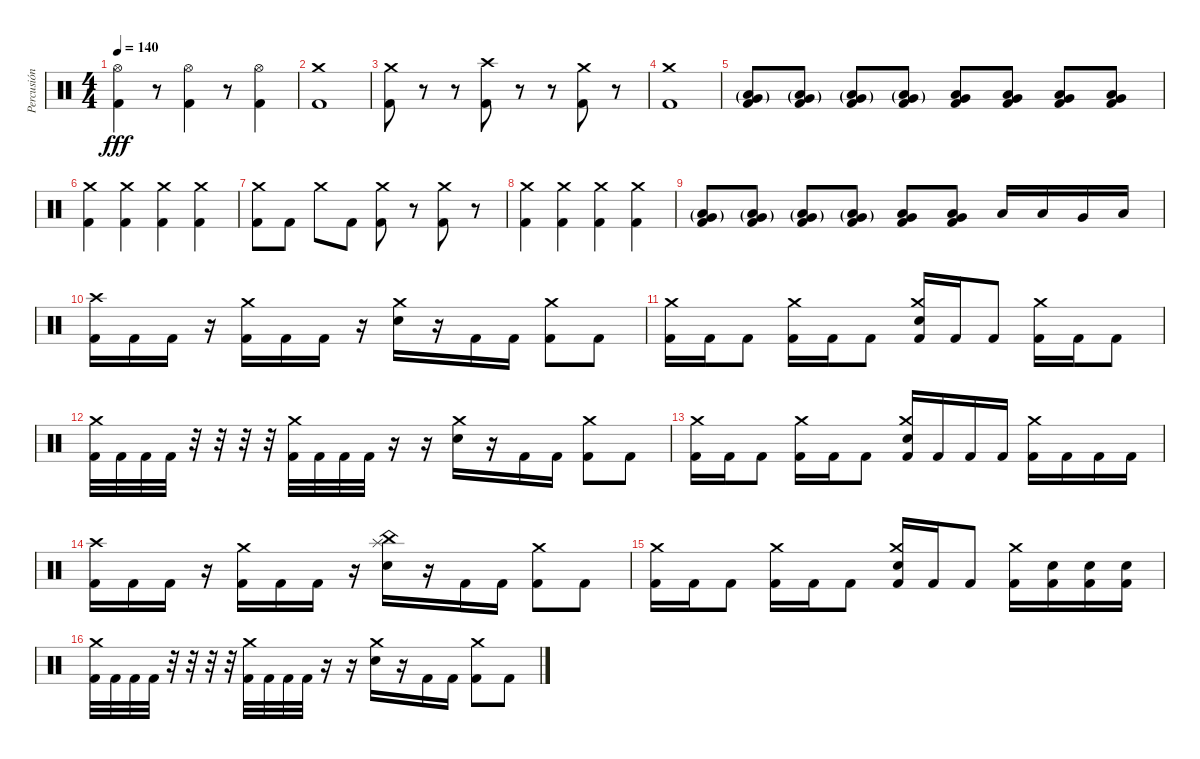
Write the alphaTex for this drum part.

\track ("Percusión" "Percusión") {instrument percussion}
\staff {score}
\articulation defaults
\ts (4 4)
\tempo 140
\clef neutral
\ks c
("Hi-Hat (open)" "Kick (hit) 2").4{dy fff} r.8 ("Hi-Hat (open)" "Kick (hit) 2").4 r.8 ("Hi-Hat (open)" "Kick (hit) 2").4 |
("Crash medium (hit)" "Kick (hit) 2").1 |
("Crash medium (hit)" "Kick (hit) 2").8 r.8 r.8 ("Crash high (hit)" "Kick (hit) 2").8 r.8 r.8 ("Crash medium (hit)" "Kick (hit) 2").8 r.8 |
("Crash medium (hit)" "Kick (hit) 2").1 |
("Low Tom (hit)"{g} "Very Low Tom (hit)"{g} "Kick (hit) 2").8 ("Low Tom (hit)"{g} "Very Low Tom (hit)"{g} "Kick (hit) 2").8 ("Low Tom (hit)"{g} "Very Low Tom (hit)"{g} "Kick (hit) 2").8 ("Low Tom (hit)"{g} "Very Low Tom (hit)"{g} "Kick (hit) 2").8 ("Low Tom (hit)" "Very Low Tom (hit)" "Kick (hit) 2").8 ("Low Tom (hit)" "Very Low Tom (hit)" "Kick (hit) 2").8 ("Low Tom (hit)" "Very Low Tom (hit)" "Kick (hit) 2").8 ("Low Tom (hit)" "Very Low Tom (hit)" "Kick (hit) 2").8 |
("Crash medium (hit)" "Kick (hit) 2").4 ("Crash medium (hit)" "Kick (hit) 2").4 ("Crash medium (hit)" "Kick (hit) 2").4 ("Crash medium (hit)" "Kick (hit) 2").4 |
("Crash medium (hit)" "Kick (hit) 2").8 "Kick (hit) 2".8 "Crash medium (hit)".8 "Kick (hit) 2".8 ("Crash medium (hit)" "Kick (hit) 2").8 r.8 ("Crash medium (hit)" "Kick (hit) 2").8 r.8 |
("Crash medium (hit)" "Kick (hit) 2").4 ("Crash medium (hit)" "Kick (hit) 2").4 ("Crash medium (hit)" "Kick (hit) 2").4 ("Crash medium (hit)" "Kick (hit) 2").4 |
("Low Tom (hit)"{g} "Very Low Tom (hit)"{g} "Kick (hit) 2").8 ("Low Tom (hit)"{g} "Very Low Tom (hit)"{g} "Kick (hit) 2").8 ("Low Tom (hit)"{g} "Very Low Tom (hit)"{g} "Kick (hit) 2").8 ("Low Tom (hit)"{g} "Very Low Tom (hit)"{g} "Kick (hit) 2").8 ("Low Tom (hit)" "Very Low Tom (hit)" "Kick (hit) 2").8 ("Low Tom (hit)" "Very Low Tom (hit)" "Kick (hit) 2").8 "Low Tom (hit)".16 "Low Tom (hit)".16 "Very Low Tom (hit)".16 "Low Floor Tom (hit)".16 |
("Crash high (hit)" "Kick (hit) 2").16 "Kick (hit) 2".16 "Kick (hit) 2".16 r.16 ("Crash medium (hit)" "Kick (hit) 2").16 "Kick (hit) 2".16 "Kick (hit) 2".16 r.16 ("Crash medium (hit)" "Electric Snare (hit)").16 r.16 "Kick (hit) 2".16 "Kick (hit) 2".16 ("Crash medium (hit)" "Kick (hit) 2").8 "Kick (hit) 2".8 |
("Crash medium (hit)" "Kick (hit) 2").16 "Kick (hit) 2".16 "Kick (hit) 2".8 ("Crash medium (hit)" "Kick (hit) 2").16 "Kick (hit) 2".16 "Kick (hit) 2".8 ("Crash medium (hit)" "Electric Snare (hit)" "Kick (hit) 2").16 "Kick (hit) 2".16 "Kick (hit) 2".8 ("Crash medium (hit)" "Kick (hit) 2").16 "Kick (hit) 2".16 "Kick (hit) 2".8 |
("Crash medium (hit)" "Kick (hit) 2").32 "Kick (hit) 2".32 "Kick (hit) 2".32 "Kick (hit) 2".32 r.32 r.32 r.32 r.32 ("Crash medium (hit)" "Kick (hit) 2").32 "Kick (hit) 2".32 "Kick (hit) 2".32 "Kick (hit) 2".32 r.16 r.16 ("Crash medium (hit)" "Electric Snare (hit)").16 r.16 "Kick (hit) 2".16 "Kick (hit) 2".16 ("Crash medium (hit)" "Kick (hit) 2").8 "Kick (hit) 2".8 |
("Crash medium (hit)" "Kick (hit) 2").16 "Kick (hit) 2".16 "Kick (hit) 2".8 ("Crash medium (hit)" "Kick (hit) 2").16 "Kick (hit) 2".16 "Kick (hit) 2".8 ("Crash medium (hit)" "Electric Snare (hit)" "Kick (hit) 2").16 "Kick (hit) 2".16 "Kick (hit) 2".16 "Kick (hit) 2".16 ("Crash medium (hit)" "Kick (hit) 2").16 "Kick (hit) 2".16 "Kick (hit) 2".16 "Kick (hit) 2".16 |
("Crash high (hit)" "Kick (hit) 2").16 "Kick (hit) 2".16 "Kick (hit) 2".16 r.16 ("Crash medium (hit)" "Kick (hit) 2").16 "Kick (hit) 2".16 "Kick (hit) 2".16 r.16 ("Splash (hit)" "China (hit)" "Electric Snare (hit)").16 r.16 "Kick (hit) 2".16 "Kick (hit) 2".16 ("Crash medium (hit)" "Kick (hit) 2").8 "Kick (hit) 2".8 |
("Crash medium (hit)" "Kick (hit) 2").16 "Kick (hit) 2".16 "Kick (hit) 2".8 ("Crash medium (hit)" "Kick (hit) 2").16 "Kick (hit) 2".16 "Kick (hit) 2".8 ("Crash medium (hit)" "Electric Snare (hit)" "Kick (hit) 2").16 "Kick (hit) 2".16 "Kick (hit) 2".8 ("Crash medium (hit)" "Kick (hit) 2").16 ("Electric Snare (hit)" "Kick (hit) 2").16 ("Electric Snare (hit)" "Kick (hit) 2").16 ("Electric Snare (hit)" "Kick (hit) 2").16 |
("Crash medium (hit)" "Kick (hit) 2").32 "Kick (hit) 2".32 "Kick (hit) 2".32 "Kick (hit) 2".32 r.32 r.32 r.32 r.32 ("Crash medium (hit)" "Kick (hit) 2").32 "Kick (hit) 2".32 "Kick (hit) 2".32 "Kick (hit) 2".32 r.16 r.16 ("Crash medium (hit)" "Electric Snare (hit)").16 r.16 "Kick (hit) 2".16 "Kick (hit) 2".16 ("Crash medium (hit)" "Kick (hit) 2").8 "Kick (hit) 2".8
